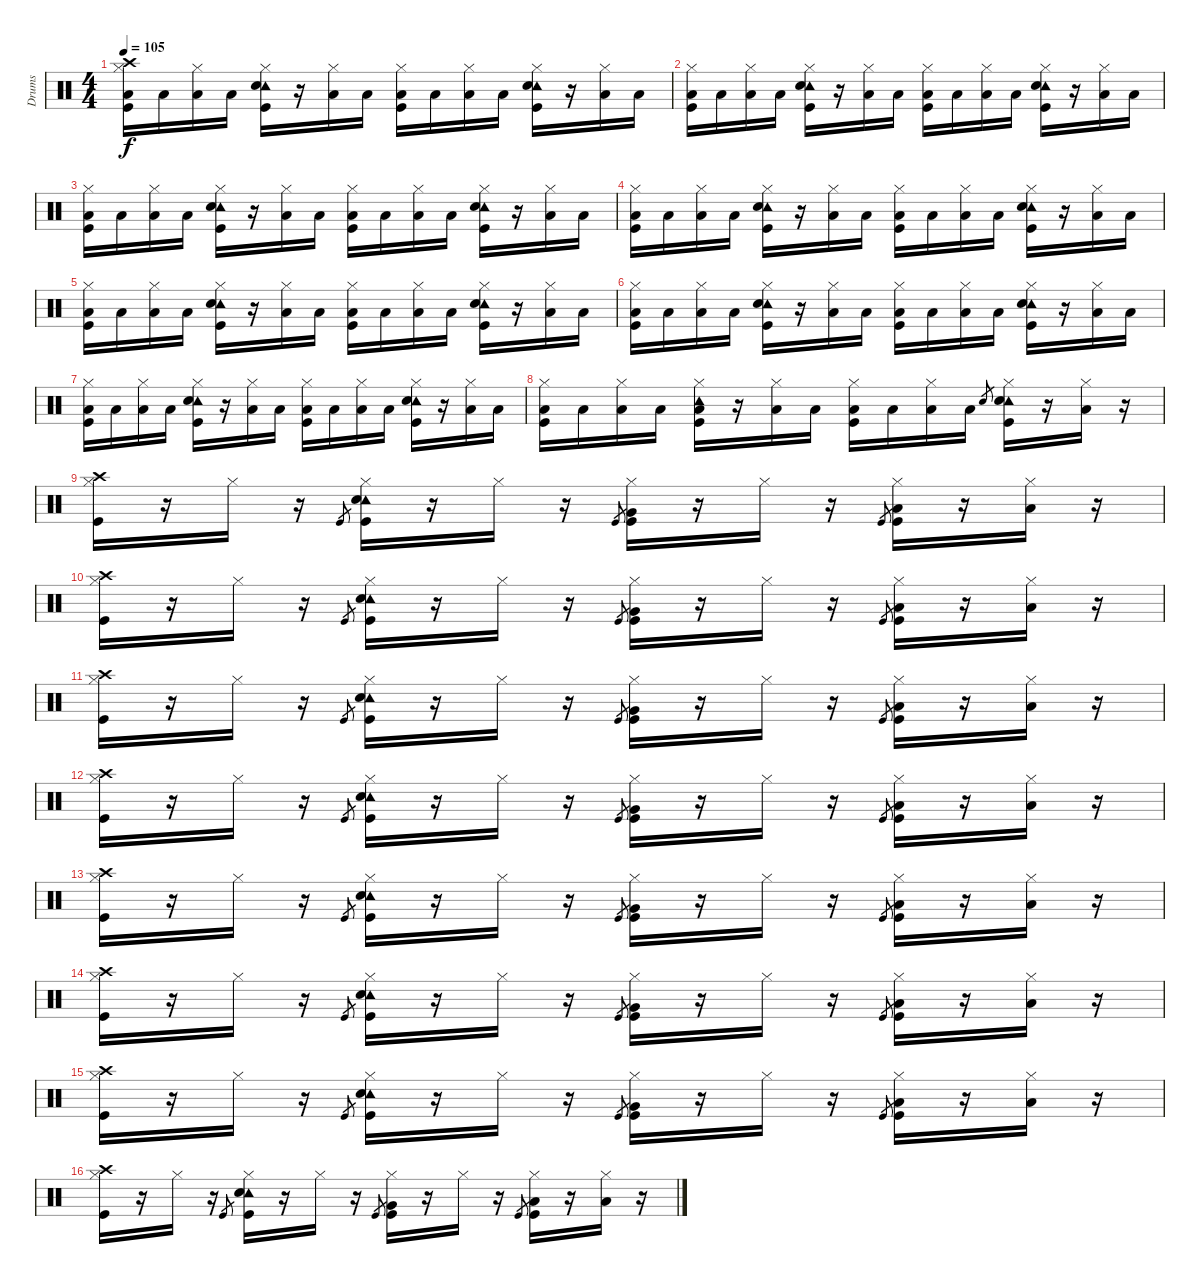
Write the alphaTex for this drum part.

\track ("Drums" "Drums") {instrument percussion}
\staff {score}
\articulation defaults
\ts (4 4)
\tempo 105
\clef neutral
\ks c
("Crash high (hit)" "Hi-Hat (closed)" "Low Floor Tom (hit)" "Kick (hit)").16{dy f} "Low Floor Tom (hit)".16 ("Hi-Hat (closed)" "Low Floor Tom (hit)").16 "Low Floor Tom (hit)".16 ("Tambourine (hit)" "Hi-Hat (closed)" "Snare (hit) 2" "Kick (hit)").16 r.16 ("Hi-Hat (closed)" "Low Floor Tom (hit)").16 "Low Floor Tom (hit)".16 ("Hi-Hat (closed)" "Low Floor Tom (hit)" "Kick (hit)").16 "Low Floor Tom (hit)".16 ("Hi-Hat (closed)" "Low Floor Tom (hit)").16 "Low Floor Tom (hit)".16 ("Tambourine (hit)" "Hi-Hat (closed)" "Snare (hit) 2" "Kick (hit)").16 r.16 ("Hi-Hat (closed)" "Low Floor Tom (hit)").16 "Low Floor Tom (hit)".16 |
("Hi-Hat (closed)" "Low Floor Tom (hit)" "Kick (hit)").16 "Low Floor Tom (hit)".16 ("Hi-Hat (closed)" "Low Floor Tom (hit)").16 "Low Floor Tom (hit)".16 ("Tambourine (hit)" "Hi-Hat (closed)" "Snare (hit) 2" "Kick (hit)").16 r.16 ("Hi-Hat (closed)" "Low Floor Tom (hit)").16 "Low Floor Tom (hit)".16 ("Hi-Hat (closed)" "Low Floor Tom (hit)" "Kick (hit)").16 "Low Floor Tom (hit)".16 ("Hi-Hat (closed)" "Low Floor Tom (hit)").16 "Low Floor Tom (hit)".16 ("Tambourine (hit)" "Hi-Hat (closed)" "Snare (hit) 2" "Kick (hit)").16 r.16 ("Hi-Hat (closed)" "Low Floor Tom (hit)").16 "Low Floor Tom (hit)".16 |
("Hi-Hat (closed)" "Low Floor Tom (hit)" "Kick (hit)").16 "Low Floor Tom (hit)".16 ("Hi-Hat (closed)" "Low Floor Tom (hit)").16 "Low Floor Tom (hit)".16 ("Tambourine (hit)" "Hi-Hat (closed)" "Snare (hit) 2" "Kick (hit)").16 r.16 ("Hi-Hat (closed)" "Low Floor Tom (hit)").16 "Low Floor Tom (hit)".16 ("Hi-Hat (closed)" "Low Floor Tom (hit)" "Kick (hit)").16 "Low Floor Tom (hit)".16 ("Hi-Hat (closed)" "Low Floor Tom (hit)").16 "Low Floor Tom (hit)".16 ("Tambourine (hit)" "Hi-Hat (closed)" "Snare (hit) 2" "Kick (hit)").16 r.16 ("Hi-Hat (closed)" "Low Floor Tom (hit)").16 "Low Floor Tom (hit)".16 |
("Hi-Hat (closed)" "Low Floor Tom (hit)" "Kick (hit)").16 "Low Floor Tom (hit)".16 ("Hi-Hat (closed)" "Low Floor Tom (hit)").16 "Low Floor Tom (hit)".16 ("Tambourine (hit)" "Hi-Hat (closed)" "Snare (hit) 2" "Kick (hit)").16 r.16 ("Hi-Hat (closed)" "Low Floor Tom (hit)").16 "Low Floor Tom (hit)".16 ("Hi-Hat (closed)" "Low Floor Tom (hit)" "Kick (hit)").16 "Low Floor Tom (hit)".16 ("Hi-Hat (closed)" "Low Floor Tom (hit)").16 "Low Floor Tom (hit)".16 ("Tambourine (hit)" "Hi-Hat (closed)" "Snare (hit) 2" "Kick (hit)").16 r.16 ("Hi-Hat (closed)" "Low Floor Tom (hit)").16 "Low Floor Tom (hit)".16 |
("Hi-Hat (closed)" "Low Floor Tom (hit)" "Kick (hit)").16 "Low Floor Tom (hit)".16 ("Hi-Hat (closed)" "Low Floor Tom (hit)").16 "Low Floor Tom (hit)".16 ("Tambourine (hit)" "Hi-Hat (closed)" "Snare (hit) 2" "Kick (hit)").16 r.16 ("Hi-Hat (closed)" "Low Floor Tom (hit)").16 "Low Floor Tom (hit)".16 ("Hi-Hat (closed)" "Low Floor Tom (hit)" "Kick (hit)").16 "Low Floor Tom (hit)".16 ("Hi-Hat (closed)" "Low Floor Tom (hit)").16 "Low Floor Tom (hit)".16 ("Tambourine (hit)" "Hi-Hat (closed)" "Snare (hit) 2" "Kick (hit)").16 r.16 ("Hi-Hat (closed)" "Low Floor Tom (hit)").16 "Low Floor Tom (hit)".16 |
("Hi-Hat (closed)" "Low Floor Tom (hit)" "Kick (hit)").16 "Low Floor Tom (hit)".16 ("Hi-Hat (closed)" "Low Floor Tom (hit)").16 "Low Floor Tom (hit)".16 ("Tambourine (hit)" "Hi-Hat (closed)" "Snare (hit) 2" "Kick (hit)").16 r.16 ("Hi-Hat (closed)" "Low Floor Tom (hit)").16 "Low Floor Tom (hit)".16 ("Hi-Hat (closed)" "Low Floor Tom (hit)" "Kick (hit)").16 "Low Floor Tom (hit)".16 ("Hi-Hat (closed)" "Low Floor Tom (hit)").16 "Low Floor Tom (hit)".16 ("Tambourine (hit)" "Hi-Hat (closed)" "Snare (hit) 2" "Kick (hit)").16 r.16 ("Hi-Hat (closed)" "Low Floor Tom (hit)").16 "Low Floor Tom (hit)".16 |
("Hi-Hat (closed)" "Low Floor Tom (hit)" "Kick (hit)").16 "Low Floor Tom (hit)".16 ("Hi-Hat (closed)" "Low Floor Tom (hit)").16 "Low Floor Tom (hit)".16 ("Tambourine (hit)" "Hi-Hat (closed)" "Snare (hit) 2" "Kick (hit)").16 r.16 ("Hi-Hat (closed)" "Low Floor Tom (hit)").16 "Low Floor Tom (hit)".16 ("Hi-Hat (closed)" "Low Floor Tom (hit)" "Kick (hit)").16 "Low Floor Tom (hit)".16 ("Hi-Hat (closed)" "Low Floor Tom (hit)").16 "Low Floor Tom (hit)".16 ("Tambourine (hit)" "Hi-Hat (closed)" "Snare (hit) 2" "Kick (hit)").16 r.16 ("Hi-Hat (closed)" "Low Floor Tom (hit)").16 "Low Floor Tom (hit)".16 |
("Hi-Hat (closed)" "Low Floor Tom (hit)" "Kick (hit)").16 "Low Floor Tom (hit)".16 ("Hi-Hat (closed)" "Low Floor Tom (hit)").16 "Low Floor Tom (hit)".16 ("Tambourine (hit)" "Hi-Hat (closed)" "Low Floor Tom (hit)" "Kick (hit)").16 r.16 ("Hi-Hat (closed)" "Low Floor Tom (hit)").16 "Low Floor Tom (hit)".16 ("Hi-Hat (closed)" "Low Floor Tom (hit)" "Kick (hit)").16 "Low Floor Tom (hit)".16 ("Hi-Hat (closed)" "Low Floor Tom (hit)").16 "Low Floor Tom (hit)".16 "Snare (hit) 2".8{gr} ("Tambourine (hit)" "Hi-Hat (closed)" "Snare (hit) 2" "Kick (hit)").16 r.16 ("Hi-Hat (closed)" "Low Floor Tom (hit)").16 r.16 |
("Crash high (hit)" "Hi-Hat (closed)" "Kick (hit)").16 r.16 "Hi-Hat (closed)".16 r.16 "Kick (hit)".8{gr} ("Tambourine (hit)" "Hi-Hat (closed)" "Snare (hit) 2" "Kick (hit)").16 r.16 "Hi-Hat (closed)".16 r.16 "Kick (hit)".8{gr} ("Hi-Hat (closed)" "Very Low Tom (hit)" "Kick (hit)").16 r.16 "Hi-Hat (closed)".16 r.16 "Kick (hit)".8{gr} ("Hi-Hat (closed)" "Low Floor Tom (hit)" "Kick (hit)").16 r.16 ("Hi-Hat (closed)" "Low Floor Tom (hit)").16 r.16 |
("Crash high (hit)" "Hi-Hat (closed)" "Kick (hit)").16 r.16 "Hi-Hat (closed)".16 r.16 "Kick (hit)".8{gr} ("Tambourine (hit)" "Hi-Hat (closed)" "Snare (hit) 2" "Kick (hit)").16 r.16 "Hi-Hat (closed)".16 r.16 "Kick (hit)".8{gr} ("Hi-Hat (closed)" "Very Low Tom (hit)" "Kick (hit)").16 r.16 "Hi-Hat (closed)".16 r.16 "Kick (hit)".8{gr} ("Hi-Hat (closed)" "Low Floor Tom (hit)" "Kick (hit)").16 r.16 ("Hi-Hat (closed)" "Low Floor Tom (hit)").16 r.16 |
("Crash high (hit)" "Hi-Hat (closed)" "Kick (hit)").16 r.16 "Hi-Hat (closed)".16 r.16 "Kick (hit)".8{gr} ("Tambourine (hit)" "Hi-Hat (closed)" "Snare (hit) 2" "Kick (hit)").16 r.16 "Hi-Hat (closed)".16 r.16 "Kick (hit)".8{gr} ("Hi-Hat (closed)" "Very Low Tom (hit)" "Kick (hit)").16 r.16 "Hi-Hat (closed)".16 r.16 "Kick (hit)".8{gr} ("Hi-Hat (closed)" "Low Floor Tom (hit)" "Kick (hit)").16 r.16 ("Hi-Hat (closed)" "Low Floor Tom (hit)").16 r.16 |
("Crash high (hit)" "Hi-Hat (closed)" "Kick (hit)").16 r.16 "Hi-Hat (closed)".16 r.16 "Kick (hit)".8{gr} ("Tambourine (hit)" "Hi-Hat (closed)" "Snare (hit) 2" "Kick (hit)").16 r.16 "Hi-Hat (closed)".16 r.16 "Kick (hit)".8{gr} ("Hi-Hat (closed)" "Very Low Tom (hit)" "Kick (hit)").16 r.16 "Hi-Hat (closed)".16 r.16 "Kick (hit)".8{gr} ("Hi-Hat (closed)" "Low Floor Tom (hit)" "Kick (hit)").16 r.16 ("Hi-Hat (closed)" "Low Floor Tom (hit)").16 r.16 |
("Crash high (hit)" "Hi-Hat (closed)" "Kick (hit)").16 r.16 "Hi-Hat (closed)".16 r.16 "Kick (hit)".8{gr} ("Tambourine (hit)" "Hi-Hat (closed)" "Snare (hit) 2" "Kick (hit)").16 r.16 "Hi-Hat (closed)".16 r.16 "Kick (hit)".8{gr} ("Hi-Hat (closed)" "Very Low Tom (hit)" "Kick (hit)").16 r.16 "Hi-Hat (closed)".16 r.16 "Kick (hit)".8{gr} ("Hi-Hat (closed)" "Low Floor Tom (hit)" "Kick (hit)").16 r.16 ("Hi-Hat (closed)" "Low Floor Tom (hit)").16 r.16 |
("Crash high (hit)" "Hi-Hat (closed)" "Kick (hit)").16 r.16 "Hi-Hat (closed)".16 r.16 "Kick (hit)".8{gr} ("Tambourine (hit)" "Hi-Hat (closed)" "Snare (hit) 2" "Kick (hit)").16 r.16 "Hi-Hat (closed)".16 r.16 "Kick (hit)".8{gr} ("Hi-Hat (closed)" "Very Low Tom (hit)" "Kick (hit)").16 r.16 "Hi-Hat (closed)".16 r.16 "Kick (hit)".8{gr} ("Hi-Hat (closed)" "Low Floor Tom (hit)" "Kick (hit)").16 r.16 ("Hi-Hat (closed)" "Low Floor Tom (hit)").16 r.16 |
("Crash high (hit)" "Hi-Hat (closed)" "Kick (hit)").16 r.16 "Hi-Hat (closed)".16 r.16 "Kick (hit)".8{gr} ("Tambourine (hit)" "Hi-Hat (closed)" "Snare (hit) 2" "Kick (hit)").16 r.16 "Hi-Hat (closed)".16 r.16 "Kick (hit)".8{gr} ("Hi-Hat (closed)" "Very Low Tom (hit)" "Kick (hit)").16 r.16 "Hi-Hat (closed)".16 r.16 "Kick (hit)".8{gr} ("Hi-Hat (closed)" "Low Floor Tom (hit)" "Kick (hit)").16 r.16 ("Hi-Hat (closed)" "Low Floor Tom (hit)").16 r.16 |
("Crash high (hit)" "Hi-Hat (closed)" "Kick (hit)").16 r.16 "Hi-Hat (closed)".16 r.16 "Kick (hit)".8{gr} ("Tambourine (hit)" "Hi-Hat (closed)" "Snare (hit) 2" "Kick (hit)").16 r.16 "Hi-Hat (closed)".16 r.16 "Kick (hit)".8{gr} ("Hi-Hat (closed)" "Very Low Tom (hit)" "Kick (hit)").16 r.16 "Hi-Hat (closed)".16 r.16 "Kick (hit)".8{gr} ("Hi-Hat (closed)" "Low Floor Tom (hit)" "Kick (hit)").16 r.16 ("Hi-Hat (closed)" "Low Floor Tom (hit)").16 r.16
